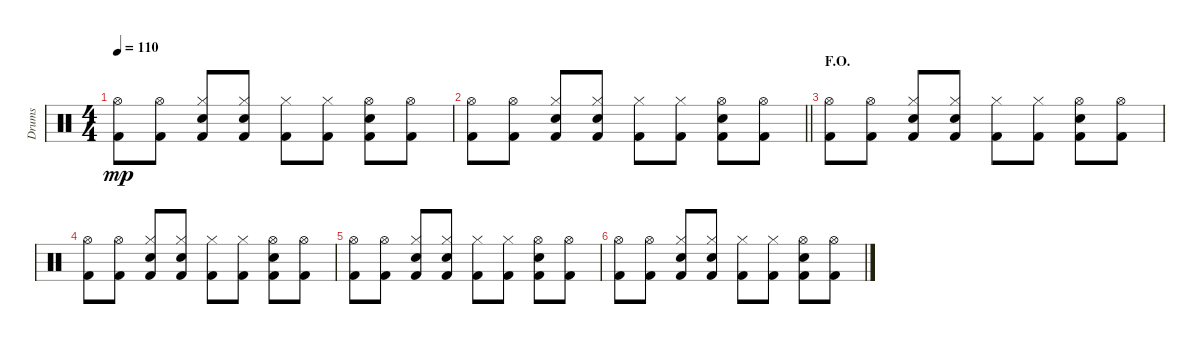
\track ("Drums" "Drums") {instrument percussion}
\staff {score}
\articulation defaults
\ts (4 4)
\tempo 110
\clef neutral
\ks c
("Hi-Hat (open)" "Kick (hit) 2").8{dy mp} ("Hi-Hat (open)" "Kick (hit) 2").8 ("Hi-Hat (closed)" "Electric Snare (hit)" "Kick (hit) 2").8 ("Hi-Hat (closed)" "Electric Snare (hit)" "Kick (hit) 2").8 ("Hi-Hat (closed)" "Kick (hit) 2").8 ("Hi-Hat (closed)" "Kick (hit) 2").8 ("Hi-Hat (open)" "Electric Snare (hit)" "Kick (hit) 2").8 ("Hi-Hat (open)" "Kick (hit) 2").8 |
\barLineRight lightlight
("Hi-Hat (open)" "Kick (hit) 2").8 ("Hi-Hat (open)" "Kick (hit) 2").8 ("Hi-Hat (closed)" "Electric Snare (hit)" "Kick (hit) 2").8 ("Hi-Hat (closed)" "Electric Snare (hit)" "Kick (hit) 2").8 ("Hi-Hat (closed)" "Kick (hit) 2").8 ("Hi-Hat (closed)" "Kick (hit) 2").8 ("Hi-Hat (open)" "Electric Snare (hit)" "Kick (hit) 2").8 ("Hi-Hat (open)" "Kick (hit) 2").8 |
\section ("" "F.O.")
("Hi-Hat (open)" "Kick (hit) 2").8{volume 0} ("Hi-Hat (open)" "Kick (hit) 2").8 ("Hi-Hat (closed)" "Electric Snare (hit)" "Kick (hit) 2").8 ("Hi-Hat (closed)" "Electric Snare (hit)" "Kick (hit) 2").8 ("Hi-Hat (closed)" "Kick (hit) 2").8 ("Hi-Hat (closed)" "Kick (hit) 2").8 ("Hi-Hat (open)" "Electric Snare (hit)" "Kick (hit) 2").8 ("Hi-Hat (open)" "Kick (hit) 2").8 |
("Hi-Hat (open)" "Kick (hit) 2").8 ("Hi-Hat (open)" "Kick (hit) 2").8 ("Hi-Hat (closed)" "Electric Snare (hit)" "Kick (hit) 2").8 ("Hi-Hat (closed)" "Electric Snare (hit)" "Kick (hit) 2").8 ("Hi-Hat (closed)" "Kick (hit) 2").8 ("Hi-Hat (closed)" "Kick (hit) 2").8 ("Hi-Hat (open)" "Electric Snare (hit)" "Kick (hit) 2").8 ("Hi-Hat (open)" "Kick (hit) 2").8 |
("Hi-Hat (open)" "Kick (hit) 2").8 ("Hi-Hat (open)" "Kick (hit) 2").8 ("Hi-Hat (closed)" "Electric Snare (hit)" "Kick (hit) 2").8 ("Hi-Hat (closed)" "Electric Snare (hit)" "Kick (hit) 2").8 ("Hi-Hat (closed)" "Kick (hit) 2").8 ("Hi-Hat (closed)" "Kick (hit) 2").8 ("Hi-Hat (open)" "Electric Snare (hit)" "Kick (hit) 2").8 ("Hi-Hat (open)" "Kick (hit) 2").8 |
("Hi-Hat (open)" "Kick (hit) 2").8 ("Hi-Hat (open)" "Kick (hit) 2").8 ("Hi-Hat (closed)" "Electric Snare (hit)" "Kick (hit) 2").8 ("Hi-Hat (closed)" "Electric Snare (hit)" "Kick (hit) 2").8 ("Hi-Hat (closed)" "Kick (hit) 2").8 ("Hi-Hat (closed)" "Kick (hit) 2").8 ("Hi-Hat (open)" "Electric Snare (hit)" "Kick (hit) 2").8 ("Hi-Hat (open)" "Kick (hit) 2").8
